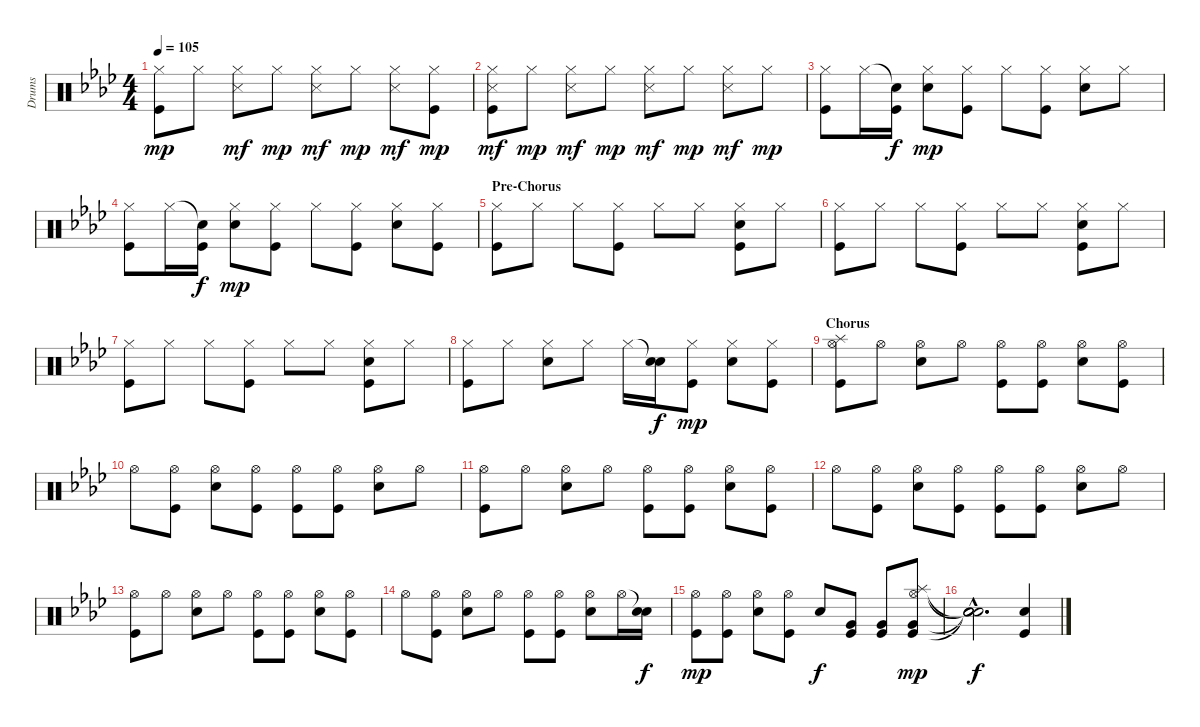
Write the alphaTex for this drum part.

\track ("Drums" "Drums") {instrument percussion}
\staff {score}
\articulation defaults
\ts (4 4)
\tempo 105
\clef neutral
\ks ab
("Hi-Hat (closed)" "Kick (hit)").8{dy mp} "Hi-Hat (closed)".8 ("Hi-Hat (closed)" "Metronome (hit)").8{dy mf} "Hi-Hat (closed)".8{dy mp} ("Hi-Hat (closed)" "Metronome (hit)").8{dy mf} "Hi-Hat (closed)".8{dy mp} ("Hi-Hat (closed)" "Metronome (hit)").8{dy mf} ("Hi-Hat (closed)" "Kick (hit)").8{dy mp} |
("Hi-Hat (closed)" "Metronome (hit)" "Kick (hit)").8{dy mf} "Hi-Hat (closed)".8{dy mp} ("Hi-Hat (closed)" "Metronome (hit)").8{dy mf} "Hi-Hat (closed)".8{dy mp} ("Hi-Hat (closed)" "Metronome (hit)").8{dy mf} "Hi-Hat (closed)".8{dy mp} ("Hi-Hat (closed)" "Metronome (hit)").8{dy mf} "Hi-Hat (closed)".8{dy mp} |
("Hi-Hat (closed)" "Kick (hit)").8 "Hi-Hat (closed)".16 ("Snare (hit)"{t} "Kick (hit)").16{dy f} ("Hi-Hat (closed)" "Electric Snare (hit)").8{dy mp} ("Hi-Hat (closed)" "Kick (hit)").8 "Hi-Hat (closed)".8 ("Hi-Hat (closed)" "Kick (hit)").8 ("Hi-Hat (closed)" "Electric Snare (hit)").8 "Hi-Hat (closed)".8 |
("Hi-Hat (closed)" "Kick (hit)").8 "Hi-Hat (closed)".16 ("Snare (hit)"{t} "Kick (hit)").16{dy f} ("Hi-Hat (closed)" "Electric Snare (hit)").8{dy mp} ("Hi-Hat (closed)" "Kick (hit)").8 "Hi-Hat (closed)".8 ("Hi-Hat (closed)" "Kick (hit)").8 ("Hi-Hat (closed)" "Electric Snare (hit)").8 ("Hi-Hat (closed)" "Kick (hit)").8 |
\section ("" "Pre-Chorus")
("Hi-Hat (closed)" "Kick (hit)").8 "Hi-Hat (closed)".8 "Hi-Hat (closed)".8 ("Hi-Hat (closed)" "Kick (hit)").8 "Hi-Hat (closed)".8 "Hi-Hat (closed)".8 ("Hi-Hat (closed)" "Electric Snare (hit)" "Kick (hit)").8 "Hi-Hat (closed)".8 |
("Hi-Hat (closed)" "Kick (hit)").8 "Hi-Hat (closed)".8 "Hi-Hat (closed)".8 ("Hi-Hat (closed)" "Kick (hit)").8 "Hi-Hat (closed)".8 "Hi-Hat (closed)".8 ("Hi-Hat (closed)" "Electric Snare (hit)" "Kick (hit)").8 "Hi-Hat (closed)".8 |
("Hi-Hat (closed)" "Kick (hit)").8 "Hi-Hat (closed)".8 "Hi-Hat (closed)".8 ("Hi-Hat (closed)" "Kick (hit)").8 "Hi-Hat (closed)".8 "Hi-Hat (closed)".8 ("Hi-Hat (closed)" "Electric Snare (hit)" "Kick (hit)").8 "Hi-Hat (closed)".8 |
("Hi-Hat (closed)" "Kick (hit)").8 "Hi-Hat (closed)".8 ("Hi-Hat (closed)" "Electric Snare (hit)").8 "Hi-Hat (closed)".8 "Hi-Hat (closed)".16 ("Snare (hit)"{t} "Electric Snare (hit)").16{dy f} ("Hi-Hat (closed)" "Kick (hit)").8{dy mp} ("Hi-Hat (closed)" "Electric Snare (hit)").8 ("Hi-Hat (closed)" "Kick (hit)").8 |
\section ("" "Chorus")
("Splash (hit)" "Hi-Hat (open)" "Kick (hit)").8 "Hi-Hat (open)".8 ("Hi-Hat (open)" "Electric Snare (hit)").8 "Hi-Hat (open)".8 ("Hi-Hat (open)" "Kick (hit)").8 ("Hi-Hat (open)" "Kick (hit)").8 ("Hi-Hat (open)" "Electric Snare (hit)").8 ("Hi-Hat (open)" "Kick (hit)").8 |
"Hi-Hat (open)".8 ("Hi-Hat (open)" "Kick (hit)").8 ("Hi-Hat (open)" "Electric Snare (hit)").8 ("Hi-Hat (open)" "Kick (hit)").8 ("Hi-Hat (open)" "Kick (hit)").8 ("Hi-Hat (open)" "Kick (hit)").8 ("Hi-Hat (open)" "Electric Snare (hit)").8 "Hi-Hat (open)".8 |
("Hi-Hat (open)" "Kick (hit)").8 "Hi-Hat (open)".8 ("Hi-Hat (open)" "Electric Snare (hit)").8 "Hi-Hat (open)".8 ("Hi-Hat (open)" "Kick (hit)").8 ("Hi-Hat (open)" "Kick (hit)").8 ("Hi-Hat (open)" "Electric Snare (hit)").8 ("Hi-Hat (open)" "Kick (hit)").8 |
"Hi-Hat (open)".8 ("Hi-Hat (open)" "Kick (hit)").8 ("Hi-Hat (open)" "Electric Snare (hit)").8 ("Hi-Hat (open)" "Kick (hit)").8 ("Hi-Hat (open)" "Kick (hit)").8 ("Hi-Hat (open)" "Kick (hit)").8 ("Hi-Hat (open)" "Electric Snare (hit)").8 "Hi-Hat (open)".8 |
("Hi-Hat (open)" "Kick (hit)").8 "Hi-Hat (open)".8 ("Hi-Hat (open)" "Electric Snare (hit)").8 "Hi-Hat (open)".8 ("Hi-Hat (open)" "Kick (hit)").8 ("Hi-Hat (open)" "Kick (hit)").8 ("Hi-Hat (open)" "Electric Snare (hit)").8 ("Hi-Hat (open)" "Kick (hit)").8 |
"Hi-Hat (open)".8 ("Hi-Hat (open)" "Kick (hit)").8 ("Hi-Hat (open)" "Electric Snare (hit)").8 "Hi-Hat (open)".8 ("Hi-Hat (open)" "Kick (hit)").8 ("Hi-Hat (open)" "Kick (hit)").8 ("Hi-Hat (open)" "Electric Snare (hit)").8 "Hi-Hat (open)".16 ("Snare (hit)"{t} "Electric Snare (hit)").16{dy f} |
("Hi-Hat (open)" "Kick (hit)").8{dy mp} ("Hi-Hat (open)" "Kick (hit)").8 ("Hi-Hat (open)" "Electric Snare (hit)").8 ("Hi-Hat (open)" "Kick (hit)").8 "Electric Snare (hit)".8{dy f} ("Very Low Tom (hit)" "Kick (hit)").8 ("Very Low Tom (hit)" "Kick (hit)").8 ("Splash (hit)" "Hi-Hat (open)" "Very Low Tom (hit)" "Kick (hit)").8{dy mp} |
("Snare (hit)"{hac t} "Snare (hit)"{hac t} "Snare (hit)"{hac t} "Snare (hit)"{hac t}).2{d dy f} ("Electric Snare (hit)" "Kick (hit)").4
